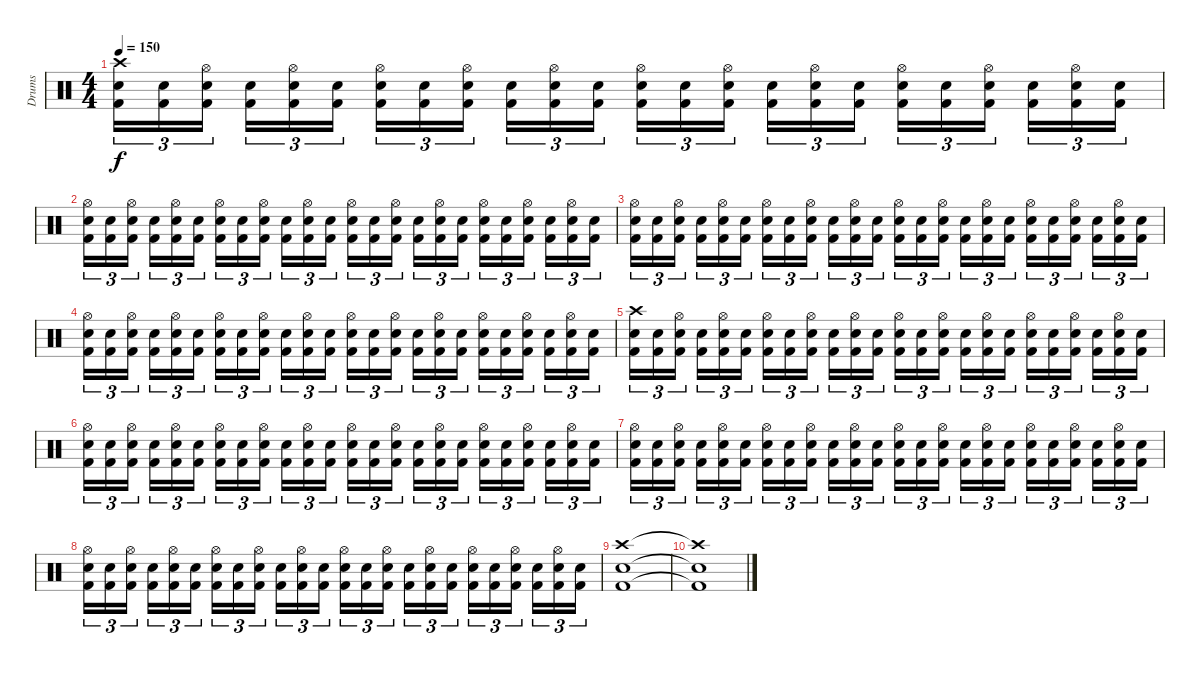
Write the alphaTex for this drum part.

\track ("Drums" "Drums") {instrument percussion}
\staff {score}
\articulation defaults
\ts (4 4)
\tempo 150
\clef neutral
\ks c
("Crash high (hit)" "Snare (hit) 2" "Kick (hit) 2").16{tu (3 2) dy f} ("Snare (hit) 2" "Kick (hit) 2").16{tu (3 2)} ("Hi-Hat (open)" "Snare (hit) 2" "Kick (hit) 2").16{tu (3 2)} ("Snare (hit) 2" "Kick (hit) 2").16{tu (3 2)} ("Hi-Hat (open)" "Snare (hit) 2" "Kick (hit) 2").16{tu (3 2)} ("Snare (hit) 2" "Kick (hit) 2").16{tu (3 2)} ("Hi-Hat (open)" "Snare (hit) 2" "Kick (hit) 2").16{tu (3 2)} ("Snare (hit) 2" "Kick (hit) 2").16{tu (3 2)} ("Hi-Hat (open)" "Snare (hit) 2" "Kick (hit) 2").16{tu (3 2)} ("Snare (hit) 2" "Kick (hit) 2").16{tu (3 2)} ("Hi-Hat (open)" "Snare (hit) 2" "Kick (hit) 2").16{tu (3 2)} ("Snare (hit) 2" "Kick (hit) 2").16{tu (3 2)} ("Hi-Hat (open)" "Snare (hit) 2" "Kick (hit) 2").16{tu (3 2)} ("Snare (hit) 2" "Kick (hit) 2").16{tu (3 2)} ("Hi-Hat (open)" "Snare (hit) 2" "Kick (hit) 2").16{tu (3 2)} ("Snare (hit) 2" "Kick (hit) 2").16{tu (3 2)} ("Hi-Hat (open)" "Snare (hit) 2" "Kick (hit) 2").16{tu (3 2)} ("Snare (hit) 2" "Kick (hit) 2").16{tu (3 2)} ("Hi-Hat (open)" "Snare (hit) 2" "Kick (hit) 2").16{tu (3 2)} ("Snare (hit) 2" "Kick (hit) 2").16{tu (3 2)} ("Hi-Hat (open)" "Snare (hit) 2" "Kick (hit) 2").16{tu (3 2)} ("Snare (hit) 2" "Kick (hit) 2").16{tu (3 2)} ("Hi-Hat (open)" "Snare (hit) 2" "Kick (hit) 2").16{tu (3 2)} ("Snare (hit) 2" "Kick (hit) 2").16{tu (3 2)} |
("Hi-Hat (open)" "Snare (hit) 2" "Kick (hit) 2").16{tu (3 2)} ("Snare (hit) 2" "Kick (hit) 2").16{tu (3 2)} ("Hi-Hat (open)" "Snare (hit) 2" "Kick (hit) 2").16{tu (3 2)} ("Snare (hit) 2" "Kick (hit) 2").16{tu (3 2)} ("Hi-Hat (open)" "Snare (hit) 2" "Kick (hit) 2").16{tu (3 2)} ("Snare (hit) 2" "Kick (hit) 2").16{tu (3 2)} ("Hi-Hat (open)" "Snare (hit) 2" "Kick (hit) 2").16{tu (3 2)} ("Snare (hit) 2" "Kick (hit) 2").16{tu (3 2)} ("Hi-Hat (open)" "Snare (hit) 2" "Kick (hit) 2").16{tu (3 2)} ("Snare (hit) 2" "Kick (hit) 2").16{tu (3 2)} ("Hi-Hat (open)" "Snare (hit) 2" "Kick (hit) 2").16{tu (3 2)} ("Snare (hit) 2" "Kick (hit) 2").16{tu (3 2)} ("Hi-Hat (open)" "Snare (hit) 2" "Kick (hit) 2").16{tu (3 2)} ("Snare (hit) 2" "Kick (hit) 2").16{tu (3 2)} ("Hi-Hat (open)" "Snare (hit) 2" "Kick (hit) 2").16{tu (3 2)} ("Snare (hit) 2" "Kick (hit) 2").16{tu (3 2)} ("Hi-Hat (open)" "Snare (hit) 2" "Kick (hit) 2").16{tu (3 2)} ("Snare (hit) 2" "Kick (hit) 2").16{tu (3 2)} ("Hi-Hat (open)" "Snare (hit) 2" "Kick (hit) 2").16{tu (3 2)} ("Snare (hit) 2" "Kick (hit) 2").16{tu (3 2)} ("Hi-Hat (open)" "Snare (hit) 2" "Kick (hit) 2").16{tu (3 2)} ("Snare (hit) 2" "Kick (hit) 2").16{tu (3 2)} ("Hi-Hat (open)" "Snare (hit) 2" "Kick (hit) 2").16{tu (3 2)} ("Snare (hit) 2" "Kick (hit) 2").16{tu (3 2)} |
("Hi-Hat (open)" "Snare (hit) 2" "Kick (hit) 2").16{tu (3 2)} ("Snare (hit) 2" "Kick (hit) 2").16{tu (3 2)} ("Hi-Hat (open)" "Snare (hit) 2" "Kick (hit) 2").16{tu (3 2)} ("Snare (hit) 2" "Kick (hit) 2").16{tu (3 2)} ("Hi-Hat (open)" "Snare (hit) 2" "Kick (hit) 2").16{tu (3 2)} ("Snare (hit) 2" "Kick (hit) 2").16{tu (3 2)} ("Hi-Hat (open)" "Snare (hit) 2" "Kick (hit) 2").16{tu (3 2)} ("Snare (hit) 2" "Kick (hit) 2").16{tu (3 2)} ("Hi-Hat (open)" "Snare (hit) 2" "Kick (hit) 2").16{tu (3 2)} ("Snare (hit) 2" "Kick (hit) 2").16{tu (3 2)} ("Hi-Hat (open)" "Snare (hit) 2" "Kick (hit) 2").16{tu (3 2)} ("Snare (hit) 2" "Kick (hit) 2").16{tu (3 2)} ("Hi-Hat (open)" "Snare (hit) 2" "Kick (hit) 2").16{tu (3 2)} ("Snare (hit) 2" "Kick (hit) 2").16{tu (3 2)} ("Hi-Hat (open)" "Snare (hit) 2" "Kick (hit) 2").16{tu (3 2)} ("Snare (hit) 2" "Kick (hit) 2").16{tu (3 2)} ("Hi-Hat (open)" "Snare (hit) 2" "Kick (hit) 2").16{tu (3 2)} ("Snare (hit) 2" "Kick (hit) 2").16{tu (3 2)} ("Hi-Hat (open)" "Snare (hit) 2" "Kick (hit) 2").16{tu (3 2)} ("Snare (hit) 2" "Kick (hit) 2").16{tu (3 2)} ("Hi-Hat (open)" "Snare (hit) 2" "Kick (hit) 2").16{tu (3 2)} ("Snare (hit) 2" "Kick (hit) 2").16{tu (3 2)} ("Hi-Hat (open)" "Snare (hit) 2" "Kick (hit) 2").16{tu (3 2)} ("Snare (hit) 2" "Kick (hit) 2").16{tu (3 2)} |
("Hi-Hat (open)" "Snare (hit) 2" "Kick (hit) 2").16{tu (3 2)} ("Snare (hit) 2" "Kick (hit) 2").16{tu (3 2)} ("Hi-Hat (open)" "Snare (hit) 2" "Kick (hit) 2").16{tu (3 2)} ("Snare (hit) 2" "Kick (hit) 2").16{tu (3 2)} ("Hi-Hat (open)" "Snare (hit) 2" "Kick (hit) 2").16{tu (3 2)} ("Snare (hit) 2" "Kick (hit) 2").16{tu (3 2)} ("Hi-Hat (open)" "Snare (hit) 2" "Kick (hit) 2").16{tu (3 2)} ("Snare (hit) 2" "Kick (hit) 2").16{tu (3 2)} ("Hi-Hat (open)" "Snare (hit) 2" "Kick (hit) 2").16{tu (3 2)} ("Snare (hit) 2" "Kick (hit) 2").16{tu (3 2)} ("Hi-Hat (open)" "Snare (hit) 2" "Kick (hit) 2").16{tu (3 2)} ("Snare (hit) 2" "Kick (hit) 2").16{tu (3 2)} ("Hi-Hat (open)" "Snare (hit) 2" "Kick (hit) 2").16{tu (3 2)} ("Snare (hit) 2" "Kick (hit) 2").16{tu (3 2)} ("Hi-Hat (open)" "Snare (hit) 2" "Kick (hit) 2").16{tu (3 2)} ("Snare (hit) 2" "Kick (hit) 2").16{tu (3 2)} ("Hi-Hat (open)" "Snare (hit) 2" "Kick (hit) 2").16{tu (3 2)} ("Snare (hit) 2" "Kick (hit) 2").16{tu (3 2)} ("Hi-Hat (open)" "Snare (hit) 2" "Kick (hit) 2").16{tu (3 2)} ("Snare (hit) 2" "Kick (hit) 2").16{tu (3 2)} ("Hi-Hat (open)" "Snare (hit) 2" "Kick (hit) 2").16{tu (3 2)} ("Snare (hit) 2" "Kick (hit) 2").16{tu (3 2)} ("Hi-Hat (open)" "Snare (hit) 2" "Kick (hit) 2").16{tu (3 2)} ("Snare (hit) 2" "Kick (hit) 2").16{tu (3 2)} |
("Crash high (hit)" "Snare (hit) 2" "Kick (hit) 2").16{tu (3 2)} ("Snare (hit) 2" "Kick (hit) 2").16{tu (3 2)} ("Hi-Hat (open)" "Snare (hit) 2" "Kick (hit) 2").16{tu (3 2)} ("Snare (hit) 2" "Kick (hit) 2").16{tu (3 2)} ("Hi-Hat (open)" "Snare (hit) 2" "Kick (hit) 2").16{tu (3 2)} ("Snare (hit) 2" "Kick (hit) 2").16{tu (3 2)} ("Hi-Hat (open)" "Snare (hit) 2" "Kick (hit) 2").16{tu (3 2)} ("Snare (hit) 2" "Kick (hit) 2").16{tu (3 2)} ("Hi-Hat (open)" "Snare (hit) 2" "Kick (hit) 2").16{tu (3 2)} ("Snare (hit) 2" "Kick (hit) 2").16{tu (3 2)} ("Hi-Hat (open)" "Snare (hit) 2" "Kick (hit) 2").16{tu (3 2)} ("Snare (hit) 2" "Kick (hit) 2").16{tu (3 2)} ("Hi-Hat (open)" "Snare (hit) 2" "Kick (hit) 2").16{tu (3 2)} ("Snare (hit) 2" "Kick (hit) 2").16{tu (3 2)} ("Hi-Hat (open)" "Snare (hit) 2" "Kick (hit) 2").16{tu (3 2)} ("Snare (hit) 2" "Kick (hit) 2").16{tu (3 2)} ("Hi-Hat (open)" "Snare (hit) 2" "Kick (hit) 2").16{tu (3 2)} ("Snare (hit) 2" "Kick (hit) 2").16{tu (3 2)} ("Hi-Hat (open)" "Snare (hit) 2" "Kick (hit) 2").16{tu (3 2)} ("Snare (hit) 2" "Kick (hit) 2").16{tu (3 2)} ("Hi-Hat (open)" "Snare (hit) 2" "Kick (hit) 2").16{tu (3 2)} ("Snare (hit) 2" "Kick (hit) 2").16{tu (3 2)} ("Hi-Hat (open)" "Snare (hit) 2" "Kick (hit) 2").16{tu (3 2)} ("Snare (hit) 2" "Kick (hit) 2").16{tu (3 2)} |
("Hi-Hat (open)" "Snare (hit) 2" "Kick (hit) 2").16{tu (3 2)} ("Snare (hit) 2" "Kick (hit) 2").16{tu (3 2)} ("Hi-Hat (open)" "Snare (hit) 2" "Kick (hit) 2").16{tu (3 2)} ("Snare (hit) 2" "Kick (hit) 2").16{tu (3 2)} ("Hi-Hat (open)" "Snare (hit) 2" "Kick (hit) 2").16{tu (3 2)} ("Snare (hit) 2" "Kick (hit) 2").16{tu (3 2)} ("Hi-Hat (open)" "Snare (hit) 2" "Kick (hit) 2").16{tu (3 2)} ("Snare (hit) 2" "Kick (hit) 2").16{tu (3 2)} ("Hi-Hat (open)" "Snare (hit) 2" "Kick (hit) 2").16{tu (3 2)} ("Snare (hit) 2" "Kick (hit) 2").16{tu (3 2)} ("Hi-Hat (open)" "Snare (hit) 2" "Kick (hit) 2").16{tu (3 2)} ("Snare (hit) 2" "Kick (hit) 2").16{tu (3 2)} ("Hi-Hat (open)" "Snare (hit) 2" "Kick (hit) 2").16{tu (3 2)} ("Snare (hit) 2" "Kick (hit) 2").16{tu (3 2)} ("Hi-Hat (open)" "Snare (hit) 2" "Kick (hit) 2").16{tu (3 2)} ("Snare (hit) 2" "Kick (hit) 2").16{tu (3 2)} ("Hi-Hat (open)" "Snare (hit) 2" "Kick (hit) 2").16{tu (3 2)} ("Snare (hit) 2" "Kick (hit) 2").16{tu (3 2)} ("Hi-Hat (open)" "Snare (hit) 2" "Kick (hit) 2").16{tu (3 2)} ("Snare (hit) 2" "Kick (hit) 2").16{tu (3 2)} ("Hi-Hat (open)" "Snare (hit) 2" "Kick (hit) 2").16{tu (3 2)} ("Snare (hit) 2" "Kick (hit) 2").16{tu (3 2)} ("Hi-Hat (open)" "Snare (hit) 2" "Kick (hit) 2").16{tu (3 2)} ("Snare (hit) 2" "Kick (hit) 2").16{tu (3 2)} |
("Hi-Hat (open)" "Snare (hit) 2" "Kick (hit) 2").16{tu (3 2)} ("Snare (hit) 2" "Kick (hit) 2").16{tu (3 2)} ("Hi-Hat (open)" "Snare (hit) 2" "Kick (hit) 2").16{tu (3 2)} ("Snare (hit) 2" "Kick (hit) 2").16{tu (3 2)} ("Hi-Hat (open)" "Snare (hit) 2" "Kick (hit) 2").16{tu (3 2)} ("Snare (hit) 2" "Kick (hit) 2").16{tu (3 2)} ("Hi-Hat (open)" "Snare (hit) 2" "Kick (hit) 2").16{tu (3 2)} ("Snare (hit) 2" "Kick (hit) 2").16{tu (3 2)} ("Hi-Hat (open)" "Snare (hit) 2" "Kick (hit) 2").16{tu (3 2)} ("Snare (hit) 2" "Kick (hit) 2").16{tu (3 2)} ("Hi-Hat (open)" "Snare (hit) 2" "Kick (hit) 2").16{tu (3 2)} ("Snare (hit) 2" "Kick (hit) 2").16{tu (3 2)} ("Hi-Hat (open)" "Snare (hit) 2" "Kick (hit) 2").16{tu (3 2)} ("Snare (hit) 2" "Kick (hit) 2").16{tu (3 2)} ("Hi-Hat (open)" "Snare (hit) 2" "Kick (hit) 2").16{tu (3 2)} ("Snare (hit) 2" "Kick (hit) 2").16{tu (3 2)} ("Hi-Hat (open)" "Snare (hit) 2" "Kick (hit) 2").16{tu (3 2)} ("Snare (hit) 2" "Kick (hit) 2").16{tu (3 2)} ("Hi-Hat (open)" "Snare (hit) 2" "Kick (hit) 2").16{tu (3 2)} ("Snare (hit) 2" "Kick (hit) 2").16{tu (3 2)} ("Hi-Hat (open)" "Snare (hit) 2" "Kick (hit) 2").16{tu (3 2)} ("Snare (hit) 2" "Kick (hit) 2").16{tu (3 2)} ("Hi-Hat (open)" "Snare (hit) 2" "Kick (hit) 2").16{tu (3 2)} ("Snare (hit) 2" "Kick (hit) 2").16{tu (3 2)} |
("Hi-Hat (open)" "Snare (hit) 2" "Kick (hit) 2").16{tu (3 2)} ("Snare (hit) 2" "Kick (hit) 2").16{tu (3 2)} ("Hi-Hat (open)" "Snare (hit) 2" "Kick (hit) 2").16{tu (3 2)} ("Snare (hit) 2" "Kick (hit) 2").16{tu (3 2)} ("Hi-Hat (open)" "Snare (hit) 2" "Kick (hit) 2").16{tu (3 2)} ("Snare (hit) 2" "Kick (hit) 2").16{tu (3 2)} ("Hi-Hat (open)" "Snare (hit) 2" "Kick (hit) 2").16{tu (3 2)} ("Snare (hit) 2" "Kick (hit) 2").16{tu (3 2)} ("Hi-Hat (open)" "Snare (hit) 2" "Kick (hit) 2").16{tu (3 2)} ("Snare (hit) 2" "Kick (hit) 2").16{tu (3 2)} ("Hi-Hat (open)" "Snare (hit) 2" "Kick (hit) 2").16{tu (3 2)} ("Snare (hit) 2" "Kick (hit) 2").16{tu (3 2)} ("Hi-Hat (open)" "Snare (hit) 2" "Kick (hit) 2").16{tu (3 2)} ("Snare (hit) 2" "Kick (hit) 2").16{tu (3 2)} ("Hi-Hat (open)" "Snare (hit) 2" "Kick (hit) 2").16{tu (3 2)} ("Snare (hit) 2" "Kick (hit) 2").16{tu (3 2)} ("Hi-Hat (open)" "Snare (hit) 2" "Kick (hit) 2").16{tu (3 2)} ("Snare (hit) 2" "Kick (hit) 2").16{tu (3 2)} ("Hi-Hat (open)" "Snare (hit) 2" "Kick (hit) 2").16{tu (3 2)} ("Snare (hit) 2" "Kick (hit) 2").16{tu (3 2)} ("Hi-Hat (open)" "Snare (hit) 2" "Kick (hit) 2").16{tu (3 2)} ("Snare (hit) 2" "Kick (hit) 2").16{tu (3 2)} ("Hi-Hat (open)" "Snare (hit) 2" "Kick (hit) 2").16{tu (3 2)} ("Snare (hit) 2" "Kick (hit) 2").16{tu (3 2)} |
("Crash high (hit)" "Snare (hit) 2" "Kick (hit) 2").1 |
("Crash high (hit)"{t} "Snare (hit) 2"{t} "Kick (hit) 2"{t}).1
